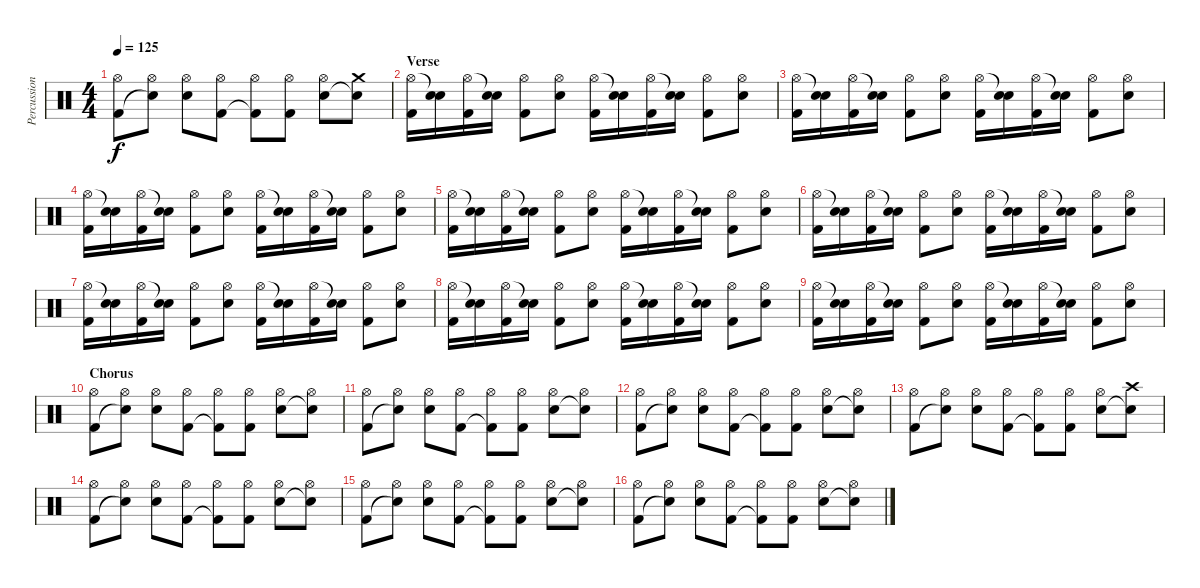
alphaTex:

\track ("Percussion" "Percussion") {instrument percussion}
\staff {score}
\articulation defaults
\ts (4 4)
\tempo 125
\clef neutral
\ks c
("Hi-Hat (open)" "Kick (hit) 2").8{dy f} ("Hi-Hat (open)" "Snare (hit)"{t}).8 ("Hi-Hat (open)" "Electric Snare (hit)").8 ("Hi-Hat (open)" "Kick (hit) 2").8 ("Hi-Hat (open)" "Kick (hit) 2"{t}).8 ("Hi-Hat (open)" "Kick (hit) 2").8 ("Hi-Hat (open)" "Electric Snare (hit)").8 ("Crash medium (hit)" "Snare (hit)"{t}).8 |
\section ("" "Verse")
("Hi-Hat (open)" "Kick (hit) 2").16 ("Snare (hit)"{t} "Electric Snare (hit)").16 ("Hi-Hat (open)" "Kick (hit) 2").16 ("Snare (hit)"{t} "Electric Snare (hit)").16 ("Hi-Hat (open)" "Kick (hit) 2").8 ("Hi-Hat (open)" "Electric Snare (hit)").8 ("Hi-Hat (open)" "Kick (hit) 2").16 ("Snare (hit)"{t} "Electric Snare (hit)").16 ("Hi-Hat (open)" "Kick (hit) 2").16 ("Snare (hit)"{t} "Electric Snare (hit)").16 ("Hi-Hat (open)" "Kick (hit) 2").8 ("Hi-Hat (open)" "Electric Snare (hit)").8 |
("Hi-Hat (open)" "Kick (hit) 2").16 ("Snare (hit)"{t} "Electric Snare (hit)").16 ("Hi-Hat (open)" "Kick (hit) 2").16 ("Snare (hit)"{t} "Electric Snare (hit)").16 ("Hi-Hat (open)" "Kick (hit) 2").8 ("Hi-Hat (open)" "Electric Snare (hit)").8 ("Hi-Hat (open)" "Kick (hit) 2").16 ("Snare (hit)"{t} "Electric Snare (hit)").16 ("Hi-Hat (open)" "Kick (hit) 2").16 ("Snare (hit)"{t} "Electric Snare (hit)").16 ("Hi-Hat (open)" "Kick (hit) 2").8 ("Hi-Hat (open)" "Electric Snare (hit)").8 |
("Hi-Hat (open)" "Kick (hit) 2").16 ("Snare (hit)"{t} "Electric Snare (hit)").16 ("Hi-Hat (open)" "Kick (hit) 2").16 ("Snare (hit)"{t} "Electric Snare (hit)").16 ("Hi-Hat (open)" "Kick (hit) 2").8 ("Hi-Hat (open)" "Electric Snare (hit)").8 ("Hi-Hat (open)" "Kick (hit) 2").16 ("Snare (hit)"{t} "Electric Snare (hit)").16 ("Hi-Hat (open)" "Kick (hit) 2").16 ("Snare (hit)"{t} "Electric Snare (hit)").16 ("Hi-Hat (open)" "Kick (hit) 2").8 ("Hi-Hat (open)" "Electric Snare (hit)").8 |
("Hi-Hat (open)" "Kick (hit) 2").16 ("Snare (hit)"{t} "Electric Snare (hit)").16 ("Hi-Hat (open)" "Kick (hit) 2").16 ("Snare (hit)"{t} "Electric Snare (hit)").16 ("Hi-Hat (open)" "Kick (hit) 2").8 ("Hi-Hat (open)" "Electric Snare (hit)").8 ("Hi-Hat (open)" "Kick (hit) 2").16 ("Snare (hit)"{t} "Electric Snare (hit)").16 ("Hi-Hat (open)" "Kick (hit) 2").16 ("Snare (hit)"{t} "Electric Snare (hit)").16 ("Hi-Hat (open)" "Kick (hit) 2").8 ("Hi-Hat (open)" "Electric Snare (hit)").8 |
("Hi-Hat (open)" "Kick (hit) 2").16 ("Snare (hit)"{t} "Electric Snare (hit)").16 ("Hi-Hat (open)" "Kick (hit) 2").16 ("Snare (hit)"{t} "Electric Snare (hit)").16 ("Hi-Hat (open)" "Kick (hit) 2").8 ("Hi-Hat (open)" "Electric Snare (hit)").8 ("Hi-Hat (open)" "Kick (hit) 2").16 ("Snare (hit)"{t} "Electric Snare (hit)").16 ("Hi-Hat (open)" "Kick (hit) 2").16 ("Snare (hit)"{t} "Electric Snare (hit)").16 ("Hi-Hat (open)" "Kick (hit) 2").8 ("Hi-Hat (open)" "Electric Snare (hit)").8 |
("Hi-Hat (open)" "Kick (hit) 2").16 ("Snare (hit)"{t} "Electric Snare (hit)").16 ("Hi-Hat (open)" "Kick (hit) 2").16 ("Snare (hit)"{t} "Electric Snare (hit)").16 ("Hi-Hat (open)" "Kick (hit) 2").8 ("Hi-Hat (open)" "Electric Snare (hit)").8 ("Hi-Hat (open)" "Kick (hit) 2").16 ("Snare (hit)"{t} "Electric Snare (hit)").16 ("Hi-Hat (open)" "Kick (hit) 2").16 ("Snare (hit)"{t} "Electric Snare (hit)").16 ("Hi-Hat (open)" "Kick (hit) 2").8 ("Hi-Hat (open)" "Electric Snare (hit)").8 |
("Hi-Hat (open)" "Kick (hit) 2").16 ("Snare (hit)"{t} "Electric Snare (hit)").16 ("Hi-Hat (open)" "Kick (hit) 2").16 ("Snare (hit)"{t} "Electric Snare (hit)").16 ("Hi-Hat (open)" "Kick (hit) 2").8 ("Hi-Hat (open)" "Electric Snare (hit)").8 ("Hi-Hat (open)" "Kick (hit) 2").16 ("Snare (hit)"{t} "Electric Snare (hit)").16 ("Hi-Hat (open)" "Kick (hit) 2").16 ("Snare (hit)"{t} "Electric Snare (hit)").16 ("Hi-Hat (open)" "Kick (hit) 2").8 ("Hi-Hat (open)" "Electric Snare (hit)").8 |
("Hi-Hat (open)" "Kick (hit) 2").16 ("Snare (hit)"{t} "Electric Snare (hit)").16 ("Hi-Hat (open)" "Kick (hit) 2").16 ("Snare (hit)"{t} "Electric Snare (hit)").16 ("Hi-Hat (open)" "Kick (hit) 2").8 ("Hi-Hat (open)" "Electric Snare (hit)").8 ("Hi-Hat (open)" "Kick (hit) 2").16 ("Snare (hit)"{t} "Electric Snare (hit)").16 ("Hi-Hat (open)" "Kick (hit) 2").16 ("Snare (hit)"{t} "Electric Snare (hit)").16 ("Hi-Hat (open)" "Kick (hit) 2").8 ("Hi-Hat (open)" "Electric Snare (hit)").8 |
\section ("" "Chorus")
("Hi-Hat (open)" "Kick (hit) 2").8 ("Hi-Hat (open)" "Snare (hit)"{t}).8 ("Hi-Hat (open)" "Electric Snare (hit)").8 ("Hi-Hat (open)" "Kick (hit) 2").8 ("Hi-Hat (open)" "Kick (hit) 2"{t}).8 ("Hi-Hat (open)" "Kick (hit) 2").8 ("Hi-Hat (open)" "Electric Snare (hit)").8 ("Hi-Hat (open)" "Snare (hit)"{t}).8 |
("Hi-Hat (open)" "Kick (hit) 2").8 ("Hi-Hat (open)" "Snare (hit)"{t}).8 ("Hi-Hat (open)" "Electric Snare (hit)").8 ("Hi-Hat (open)" "Kick (hit) 2").8 ("Hi-Hat (open)" "Kick (hit) 2"{t}).8 ("Hi-Hat (open)" "Kick (hit) 2").8 ("Hi-Hat (open)" "Electric Snare (hit)").8 ("Hi-Hat (open)" "Snare (hit)"{t}).8 |
("Hi-Hat (open)" "Kick (hit) 2").8 ("Hi-Hat (open)" "Snare (hit)"{t}).8 ("Hi-Hat (open)" "Electric Snare (hit)").8 ("Hi-Hat (open)" "Kick (hit) 2").8 ("Hi-Hat (open)" "Kick (hit) 2"{t}).8 ("Hi-Hat (open)" "Kick (hit) 2").8 ("Hi-Hat (open)" "Electric Snare (hit)").8 ("Hi-Hat (open)" "Snare (hit)"{t}).8 |
("Hi-Hat (open)" "Kick (hit) 2").8 ("Hi-Hat (open)" "Snare (hit)"{t}).8 ("Hi-Hat (open)" "Electric Snare (hit)").8 ("Hi-Hat (open)" "Kick (hit) 2").8 ("Hi-Hat (open)" "Kick (hit) 2"{t}).8 ("Hi-Hat (open)" "Kick (hit) 2").8 ("Hi-Hat (open)" "Electric Snare (hit)").8 ("Crash high (hit)" "Snare (hit)"{t}).8 |
("Hi-Hat (open)" "Kick (hit) 2").8 ("Hi-Hat (open)" "Snare (hit)"{t}).8 ("Hi-Hat (open)" "Electric Snare (hit)").8 ("Hi-Hat (open)" "Kick (hit) 2").8 ("Hi-Hat (open)" "Kick (hit) 2"{t}).8 ("Hi-Hat (open)" "Kick (hit) 2").8 ("Hi-Hat (open)" "Electric Snare (hit)").8 ("Hi-Hat (open)" "Snare (hit)"{t}).8 |
("Hi-Hat (open)" "Kick (hit) 2").8 ("Hi-Hat (open)" "Snare (hit)"{t}).8 ("Hi-Hat (open)" "Electric Snare (hit)").8 ("Hi-Hat (open)" "Kick (hit) 2").8 ("Hi-Hat (open)" "Kick (hit) 2"{t}).8 ("Hi-Hat (open)" "Kick (hit) 2").8 ("Hi-Hat (open)" "Electric Snare (hit)").8 ("Hi-Hat (open)" "Snare (hit)"{t}).8 |
("Hi-Hat (open)" "Kick (hit) 2").8 ("Hi-Hat (open)" "Snare (hit)"{t}).8 ("Hi-Hat (open)" "Electric Snare (hit)").8 ("Hi-Hat (open)" "Kick (hit) 2").8 ("Hi-Hat (open)" "Kick (hit) 2"{t}).8 ("Hi-Hat (open)" "Kick (hit) 2").8 ("Hi-Hat (open)" "Electric Snare (hit)").8 ("Hi-Hat (open)" "Snare (hit)"{t}).8
